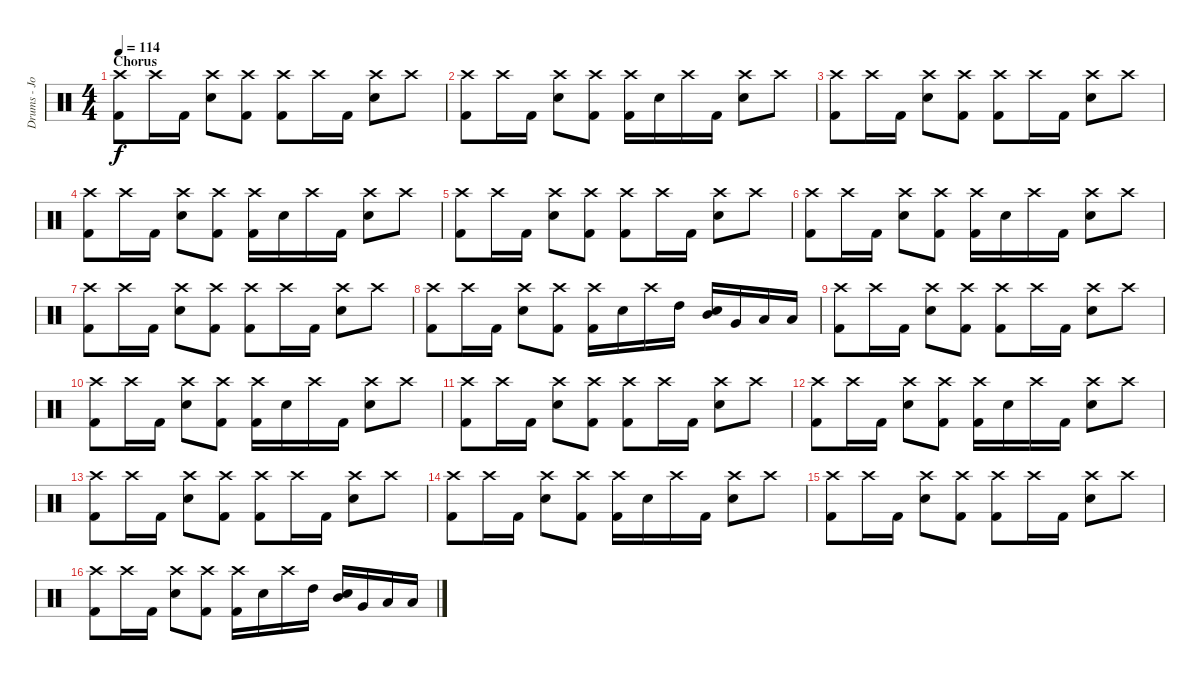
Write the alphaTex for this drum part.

\track ("Drums - Jon Wysocki" "Drums - Jo") {instrument percussion}
\staff {score}
\articulation defaults
\ts (4 4)
\section ("" "Chorus")
\tempo 114
\clef neutral
\ks c
("Crash high (hit)" "Kick (hit) 2").8{dy f} "Crash high (hit)".16 "Kick (hit) 2".16 ("Crash high (hit)" "Electric Snare (hit)").8 ("Crash high (hit)" "Kick (hit) 2").8 ("Crash high (hit)" "Kick (hit) 2").8 "Crash high (hit)".16 "Kick (hit) 2".16 ("Crash high (hit)" "Electric Snare (hit)").8 "Crash high (hit)".8 |
("Crash high (hit)" "Kick (hit) 2").8 "Crash high (hit)".16 "Kick (hit) 2".16 ("Crash high (hit)" "Electric Snare (hit)").8 ("Crash high (hit)" "Kick (hit) 2").8 ("Crash high (hit)" "Kick (hit) 2").16 "Electric Snare (hit)".16 "Crash high (hit)".16 "Kick (hit) 2".16 ("Crash high (hit)" "Electric Snare (hit)").8 "Crash high (hit)".8 |
("Crash high (hit)" "Kick (hit) 2").8 "Crash high (hit)".16 "Kick (hit) 2".16 ("Crash high (hit)" "Electric Snare (hit)").8 ("Crash high (hit)" "Kick (hit) 2").8 ("Crash high (hit)" "Kick (hit) 2").8 "Crash high (hit)".16 "Kick (hit) 2".16 ("Crash high (hit)" "Electric Snare (hit)").8 "Crash high (hit)".8 |
("Crash high (hit)" "Kick (hit) 2").8 "Crash high (hit)".16 "Kick (hit) 2".16 ("Crash high (hit)" "Electric Snare (hit)").8 ("Crash high (hit)" "Kick (hit) 2").8 ("Crash high (hit)" "Kick (hit) 2").16 "Electric Snare (hit)".16 "Crash high (hit)".16 "Kick (hit) 2".16 ("Crash high (hit)" "Electric Snare (hit)").8 "Crash high (hit)".8 |
("Crash high (hit)" "Kick (hit) 2").8 "Crash high (hit)".16 "Kick (hit) 2".16 ("Crash high (hit)" "Electric Snare (hit)").8 ("Crash high (hit)" "Kick (hit) 2").8 ("Crash high (hit)" "Kick (hit) 2").8 "Crash high (hit)".16 "Kick (hit) 2".16 ("Crash high (hit)" "Electric Snare (hit)").8 "Crash high (hit)".8 |
("Crash high (hit)" "Kick (hit) 2").8 "Crash high (hit)".16 "Kick (hit) 2".16 ("Crash high (hit)" "Electric Snare (hit)").8 ("Crash high (hit)" "Kick (hit) 2").8 ("Crash high (hit)" "Kick (hit) 2").16 "Electric Snare (hit)".16 "Crash high (hit)".16 "Kick (hit) 2".16 ("Crash high (hit)" "Electric Snare (hit)").8 "Crash high (hit)".8 |
("Crash high (hit)" "Kick (hit) 2").8 "Crash high (hit)".16 "Kick (hit) 2".16 ("Crash high (hit)" "Electric Snare (hit)").8 ("Crash high (hit)" "Kick (hit) 2").8 ("Crash high (hit)" "Kick (hit) 2").8 "Crash high (hit)".16 "Kick (hit) 2".16 ("Crash high (hit)" "Electric Snare (hit)").8 "Crash high (hit)".8 |
("Crash high (hit)" "Kick (hit) 2").8 "Crash high (hit)".16 "Kick (hit) 2".16 ("Crash high (hit)" "Electric Snare (hit)").8 ("Crash high (hit)" "Kick (hit) 2").8 ("Crash high (hit)" "Kick (hit) 2").16 "Electric Snare (hit)".16 "Crash high (hit)".16 "High Tom (hit)".16 ("Mid Tom (hit)" "Electric Snare (hit)").16 "Very Low Tom (hit)".16 "Low Tom (hit)".16 "Low Floor Tom (hit)".16 |
("Crash high (hit)" "Kick (hit) 2").8 "Crash high (hit)".16 "Kick (hit) 2".16 ("Crash high (hit)" "Electric Snare (hit)").8 ("Crash high (hit)" "Kick (hit) 2").8 ("Crash high (hit)" "Kick (hit) 2").8 "Crash high (hit)".16 "Kick (hit) 2".16 ("Crash high (hit)" "Electric Snare (hit)").8 "Crash high (hit)".8 |
("Crash high (hit)" "Kick (hit) 2").8 "Crash high (hit)".16 "Kick (hit) 2".16 ("Crash high (hit)" "Electric Snare (hit)").8 ("Crash high (hit)" "Kick (hit) 2").8 ("Crash high (hit)" "Kick (hit) 2").16 "Electric Snare (hit)".16 "Crash high (hit)".16 "Kick (hit) 2".16 ("Crash high (hit)" "Electric Snare (hit)").8 "Crash high (hit)".8 |
("Crash high (hit)" "Kick (hit) 2").8 "Crash high (hit)".16 "Kick (hit) 2".16 ("Crash high (hit)" "Electric Snare (hit)").8 ("Crash high (hit)" "Kick (hit) 2").8 ("Crash high (hit)" "Kick (hit) 2").8 "Crash high (hit)".16 "Kick (hit) 2".16 ("Crash high (hit)" "Electric Snare (hit)").8 "Crash high (hit)".8 |
("Crash high (hit)" "Kick (hit) 2").8 "Crash high (hit)".16 "Kick (hit) 2".16 ("Crash high (hit)" "Electric Snare (hit)").8 ("Crash high (hit)" "Kick (hit) 2").8 ("Crash high (hit)" "Kick (hit) 2").16 "Electric Snare (hit)".16 "Crash high (hit)".16 "Kick (hit) 2".16 ("Crash high (hit)" "Electric Snare (hit)").8 "Crash high (hit)".8 |
("Crash high (hit)" "Kick (hit) 2").8 "Crash high (hit)".16 "Kick (hit) 2".16 ("Crash high (hit)" "Electric Snare (hit)").8 ("Crash high (hit)" "Kick (hit) 2").8 ("Crash high (hit)" "Kick (hit) 2").8 "Crash high (hit)".16 "Kick (hit) 2".16 ("Crash high (hit)" "Electric Snare (hit)").8 "Crash high (hit)".8 |
("Crash high (hit)" "Kick (hit) 2").8 "Crash high (hit)".16 "Kick (hit) 2".16 ("Crash high (hit)" "Electric Snare (hit)").8 ("Crash high (hit)" "Kick (hit) 2").8 ("Crash high (hit)" "Kick (hit) 2").16 "Electric Snare (hit)".16 "Crash high (hit)".16 "Kick (hit) 2".16 ("Crash high (hit)" "Electric Snare (hit)").8 "Crash high (hit)".8 |
("Crash high (hit)" "Kick (hit) 2").8 "Crash high (hit)".16 "Kick (hit) 2".16 ("Crash high (hit)" "Electric Snare (hit)").8 ("Crash high (hit)" "Kick (hit) 2").8 ("Crash high (hit)" "Kick (hit) 2").8 "Crash high (hit)".16 "Kick (hit) 2".16 ("Crash high (hit)" "Electric Snare (hit)").8 "Crash high (hit)".8 |
("Crash high (hit)" "Kick (hit) 2").8 "Crash high (hit)".16 "Kick (hit) 2".16 ("Crash high (hit)" "Electric Snare (hit)").8 ("Crash high (hit)" "Kick (hit) 2").8 ("Crash high (hit)" "Kick (hit) 2").16 "Electric Snare (hit)".16 "Crash high (hit)".16 "High Tom (hit)".16 ("Mid Tom (hit)" "Electric Snare (hit)").16 "Very Low Tom (hit)".16 "Low Tom (hit)".16 "Low Floor Tom (hit)".16
